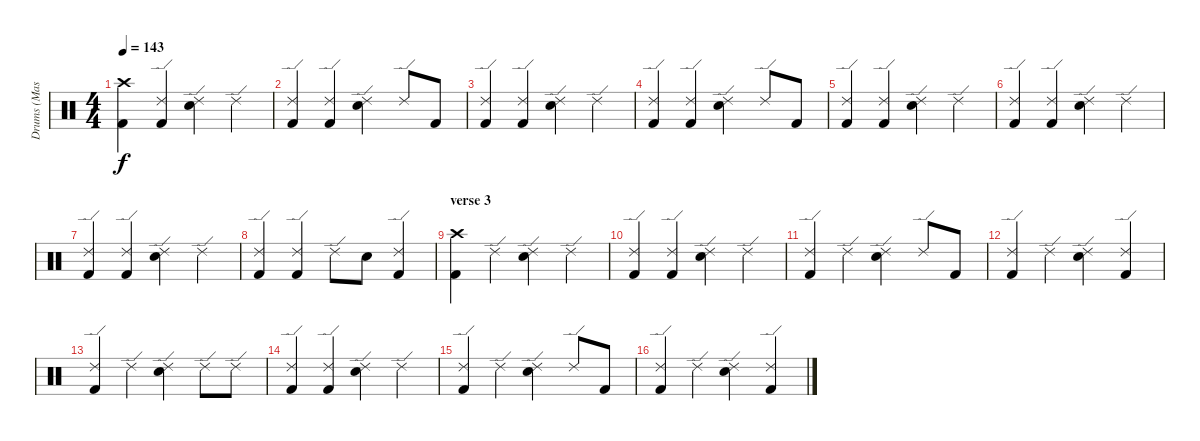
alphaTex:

\track ("Drums (Mason)" "Drums (Mas") {instrument percussion}
\staff {score}
\articulation defaults
\ts (4 4)
\tempo 143
\clef neutral
\ks c
("Crash high (hit)" "Kick (hit) 2").4{dy f} ("Ride (edge) 2" "Kick (hit) 2").4 ("Ride (edge) 2" "Electric Snare (hit)").4 "Ride (edge) 2".4 |
("Ride (edge) 2" "Kick (hit) 2").4 ("Ride (edge) 2" "Kick (hit) 2").4 ("Ride (edge) 2" "Electric Snare (hit)").4 "Ride (edge) 2".8 "Kick (hit) 2".8 |
("Ride (edge) 2" "Kick (hit) 2").4 ("Ride (edge) 2" "Kick (hit) 2").4 ("Ride (edge) 2" "Electric Snare (hit)").4 "Ride (edge) 2".4 |
("Ride (edge) 2" "Kick (hit) 2").4 ("Ride (edge) 2" "Kick (hit) 2").4 ("Ride (edge) 2" "Electric Snare (hit)").4 "Ride (edge) 2".8 "Kick (hit) 2".8 |
("Ride (edge) 2" "Kick (hit) 2").4 ("Ride (edge) 2" "Kick (hit) 2").4 ("Ride (edge) 2" "Electric Snare (hit)").4 "Ride (edge) 2".4 |
("Ride (edge) 2" "Kick (hit) 2").4 ("Ride (edge) 2" "Kick (hit) 2").4 ("Ride (edge) 2" "Electric Snare (hit)").4 "Ride (edge) 2".4 |
("Ride (edge) 2" "Kick (hit) 2").4 ("Ride (edge) 2" "Kick (hit) 2").4 ("Ride (edge) 2" "Electric Snare (hit)").4 "Ride (edge) 2".4 |
("Ride (edge) 2" "Kick (hit) 2").4 ("Ride (edge) 2" "Kick (hit) 2").4 "Ride (edge) 2".8 "Electric Snare (hit)".8 ("Ride (edge) 2" "Kick (hit) 2").4 |
\section ("" "verse 3")
("Crash high (hit)" "Kick (hit) 2").4 "Ride (edge) 2".4 ("Ride (edge) 2" "Electric Snare (hit)").4 "Ride (edge) 2".4 |
("Ride (edge) 2" "Kick (hit) 2").4 ("Ride (edge) 2" "Kick (hit) 2").4 ("Ride (edge) 2" "Electric Snare (hit)").4 "Ride (edge) 2".4 |
("Ride (edge) 2" "Kick (hit) 2").4 "Ride (edge) 2".4 ("Ride (edge) 2" "Electric Snare (hit)").4 "Ride (edge) 2".8 "Kick (hit) 2".8 |
("Ride (edge) 2" "Kick (hit) 2").4 "Ride (edge) 2".4 ("Ride (edge) 2" "Electric Snare (hit)").4 ("Ride (edge) 2" "Kick (hit) 2").4 |
("Ride (edge) 2" "Kick (hit) 2").4 "Ride (edge) 2".4 ("Ride (edge) 2" "Electric Snare (hit)").4 "Ride (edge) 2".8 "Ride (edge) 2".8 |
("Ride (edge) 2" "Kick (hit) 2").4 ("Ride (edge) 2" "Kick (hit) 2").4 ("Ride (edge) 2" "Electric Snare (hit)").4 "Ride (edge) 2".4 |
("Ride (edge) 2" "Kick (hit) 2").4 "Ride (edge) 2".4 ("Ride (edge) 2" "Electric Snare (hit)").4 "Ride (edge) 2".8 "Kick (hit) 2".8 |
("Ride (edge) 2" "Kick (hit) 2").4 "Ride (edge) 2".4 ("Ride (edge) 2" "Electric Snare (hit)").4 ("Ride (edge) 2" "Kick (hit) 2").4
